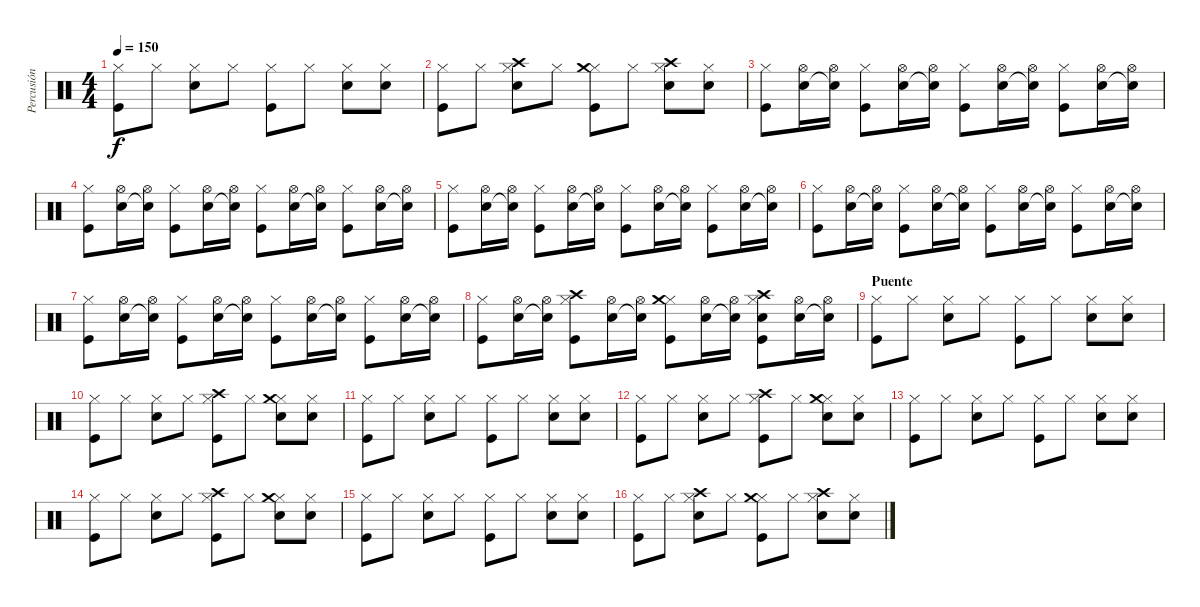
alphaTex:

\track ("Percusión" "Percusión") {instrument percussion}
\staff {score}
\articulation defaults
\ts (4 4)
\tempo 150
\clef neutral
\ks c
("Hi-Hat (closed)" "Kick (hit)").8{dy f} "Hi-Hat (closed)".8 ("Hi-Hat (closed)" "Snare (hit) 2").8 "Hi-Hat (closed)".8 ("Hi-Hat (closed)" "Kick (hit)").8 "Hi-Hat (closed)".8 ("Hi-Hat (closed)" "Snare (hit) 2").8 ("Hi-Hat (closed)" "Snare (hit) 2").8 |
("Hi-Hat (closed)" "Kick (hit)").8 "Hi-Hat (closed)".8 ("Hi-Hat (closed)" "Snare (hit) 2" "Crash high (hit)").8 "Hi-Hat (closed)".8 ("Hi-Hat (closed)" "Kick (hit)" "Crash medium (hit)").8 "Hi-Hat (closed)".8 ("Hi-Hat (closed)" "Snare (hit) 2" "Crash high (hit)").8 ("Hi-Hat (closed)" "Snare (hit) 2").8 |
("Hi-Hat (closed)" "Kick (hit)").8 ("Hi-Hat (open)" "Snare (hit) 2").16 ("Hi-Hat (open)" "Snare (hit)"{t}).16 ("Hi-Hat (closed)" "Kick (hit)").8 ("Hi-Hat (open)" "Snare (hit) 2").16 ("Hi-Hat (open)" "Snare (hit)"{t}).16 ("Hi-Hat (closed)" "Kick (hit)").8 ("Hi-Hat (open)" "Snare (hit) 2").16 ("Hi-Hat (open)" "Snare (hit) 2"{t}).16 ("Hi-Hat (closed)" "Kick (hit)").8 ("Hi-Hat (open)" "Snare (hit) 2").16 ("Hi-Hat (open)" "Snare (hit)"{t}).16 |
("Hi-Hat (closed)" "Kick (hit)").8 ("Hi-Hat (open)" "Snare (hit) 2").16 ("Hi-Hat (open)" "Snare (hit)"{t}).16 ("Hi-Hat (closed)" "Kick (hit)").8 ("Hi-Hat (open)" "Snare (hit) 2").16 ("Hi-Hat (open)" "Snare (hit)"{t}).16 ("Hi-Hat (closed)" "Kick (hit)").8 ("Hi-Hat (open)" "Snare (hit) 2").16 ("Hi-Hat (open)" "Snare (hit) 2"{t}).16 ("Hi-Hat (closed)" "Kick (hit)").8 ("Hi-Hat (open)" "Snare (hit) 2").16 ("Hi-Hat (open)" "Snare (hit)"{t}).16 |
("Hi-Hat (closed)" "Kick (hit)").8 ("Hi-Hat (open)" "Snare (hit) 2").16 ("Hi-Hat (open)" "Snare (hit)"{t}).16 ("Hi-Hat (closed)" "Kick (hit)").8 ("Hi-Hat (open)" "Snare (hit) 2").16 ("Hi-Hat (open)" "Snare (hit)"{t}).16 ("Hi-Hat (closed)" "Kick (hit)").8 ("Hi-Hat (open)" "Snare (hit) 2").16 ("Hi-Hat (open)" "Snare (hit) 2"{t}).16 ("Hi-Hat (closed)" "Kick (hit)").8 ("Hi-Hat (open)" "Snare (hit) 2").16 ("Hi-Hat (open)" "Snare (hit)"{t}).16 |
("Hi-Hat (closed)" "Kick (hit)").8 ("Hi-Hat (open)" "Snare (hit) 2").16 ("Hi-Hat (open)" "Snare (hit)"{t}).16 ("Hi-Hat (closed)" "Kick (hit)").8 ("Hi-Hat (open)" "Snare (hit) 2").16 ("Hi-Hat (open)" "Snare (hit)"{t}).16 ("Hi-Hat (closed)" "Kick (hit)").8 ("Hi-Hat (open)" "Snare (hit) 2").16 ("Hi-Hat (open)" "Snare (hit) 2"{t}).16 ("Hi-Hat (closed)" "Kick (hit)").8 ("Hi-Hat (open)" "Snare (hit) 2").16 ("Hi-Hat (open)" "Snare (hit)"{t}).16 |
("Hi-Hat (closed)" "Kick (hit)").8 ("Hi-Hat (open)" "Snare (hit) 2").16 ("Hi-Hat (open)" "Snare (hit)"{t}).16 ("Hi-Hat (closed)" "Kick (hit)").8 ("Hi-Hat (open)" "Snare (hit) 2").16 ("Hi-Hat (open)" "Snare (hit)"{t}).16 ("Hi-Hat (closed)" "Kick (hit)").8 ("Hi-Hat (open)" "Snare (hit) 2").16 ("Hi-Hat (open)" "Snare (hit) 2"{t}).16 ("Hi-Hat (closed)" "Kick (hit)").8 ("Hi-Hat (open)" "Snare (hit) 2").16 ("Hi-Hat (open)" "Snare (hit)"{t}).16 |
("Hi-Hat (closed)" "Kick (hit)").8 ("Hi-Hat (open)" "Snare (hit) 2").16 ("Hi-Hat (open)" "Snare (hit)"{t}).16 ("Hi-Hat (closed)" "Kick (hit)" "Crash high (hit)").8 ("Hi-Hat (open)" "Snare (hit) 2").16 ("Hi-Hat (open)" "Snare (hit)"{t}).16 ("Hi-Hat (closed)" "Kick (hit)" "Crash medium (hit)").8 ("Hi-Hat (open)" "Snare (hit) 2").16 ("Hi-Hat (open)" "Snare (hit) 2"{t}).16 ("Hi-Hat (closed)" "Snare (hit) 2" "Kick (hit)" "Crash high (hit)").8 ("Hi-Hat (open)" "Snare (hit) 2").16 ("Hi-Hat (open)" "Snare (hit)"{t}).16 |
\section ("" "Puente")
("Hi-Hat (closed)" "Kick (hit)").8 "Hi-Hat (closed)".8 ("Hi-Hat (closed)" "Snare (hit) 2").8 "Hi-Hat (closed)".8 ("Hi-Hat (closed)" "Kick (hit)").8 "Hi-Hat (closed)".8 ("Hi-Hat (closed)" "Snare (hit) 2").8 ("Hi-Hat (closed)" "Snare (hit) 2").8 |
("Hi-Hat (closed)" "Kick (hit)").8 "Hi-Hat (closed)".8 ("Hi-Hat (closed)" "Snare (hit) 2").8 "Hi-Hat (closed)".8 ("Hi-Hat (closed)" "Kick (hit)" "Crash high (hit)").8 "Hi-Hat (closed)".8 ("Hi-Hat (closed)" "Snare (hit) 2" "Crash medium (hit)").8 ("Hi-Hat (closed)" "Snare (hit) 2").8 |
("Hi-Hat (closed)" "Kick (hit)").8 "Hi-Hat (closed)".8 ("Hi-Hat (closed)" "Snare (hit) 2").8 "Hi-Hat (closed)".8 ("Hi-Hat (closed)" "Kick (hit)").8 "Hi-Hat (closed)".8 ("Hi-Hat (closed)" "Snare (hit) 2").8 ("Hi-Hat (closed)" "Snare (hit) 2").8 |
("Hi-Hat (closed)" "Kick (hit)").8 "Hi-Hat (closed)".8 ("Hi-Hat (closed)" "Snare (hit) 2").8 "Hi-Hat (closed)".8 ("Hi-Hat (closed)" "Kick (hit)" "Crash high (hit)").8 "Hi-Hat (closed)".8 ("Hi-Hat (closed)" "Snare (hit) 2" "Crash medium (hit)").8 ("Hi-Hat (closed)" "Snare (hit) 2").8 |
("Hi-Hat (closed)" "Kick (hit)").8 "Hi-Hat (closed)".8 ("Hi-Hat (closed)" "Snare (hit) 2").8 "Hi-Hat (closed)".8 ("Hi-Hat (closed)" "Kick (hit)").8 "Hi-Hat (closed)".8 ("Hi-Hat (closed)" "Snare (hit) 2").8 ("Hi-Hat (closed)" "Snare (hit) 2").8 |
("Hi-Hat (closed)" "Kick (hit)").8 "Hi-Hat (closed)".8 ("Hi-Hat (closed)" "Snare (hit) 2").8 "Hi-Hat (closed)".8 ("Hi-Hat (closed)" "Kick (hit)" "Crash high (hit)").8 "Hi-Hat (closed)".8 ("Hi-Hat (closed)" "Snare (hit) 2" "Crash medium (hit)").8 ("Hi-Hat (closed)" "Snare (hit) 2").8 |
("Hi-Hat (closed)" "Kick (hit)").8 "Hi-Hat (closed)".8 ("Hi-Hat (closed)" "Snare (hit) 2").8 "Hi-Hat (closed)".8 ("Hi-Hat (closed)" "Kick (hit)").8 "Hi-Hat (closed)".8 ("Hi-Hat (closed)" "Snare (hit) 2").8 ("Hi-Hat (closed)" "Snare (hit) 2").8 |
("Hi-Hat (closed)" "Kick (hit)").8 "Hi-Hat (closed)".8 ("Hi-Hat (closed)" "Snare (hit) 2" "Crash high (hit)").8 "Hi-Hat (closed)".8 ("Hi-Hat (closed)" "Kick (hit)" "Crash medium (hit)").8 "Hi-Hat (closed)".8 ("Hi-Hat (closed)" "Snare (hit) 2" "Crash high (hit)").8 ("Hi-Hat (closed)" "Snare (hit) 2").8
